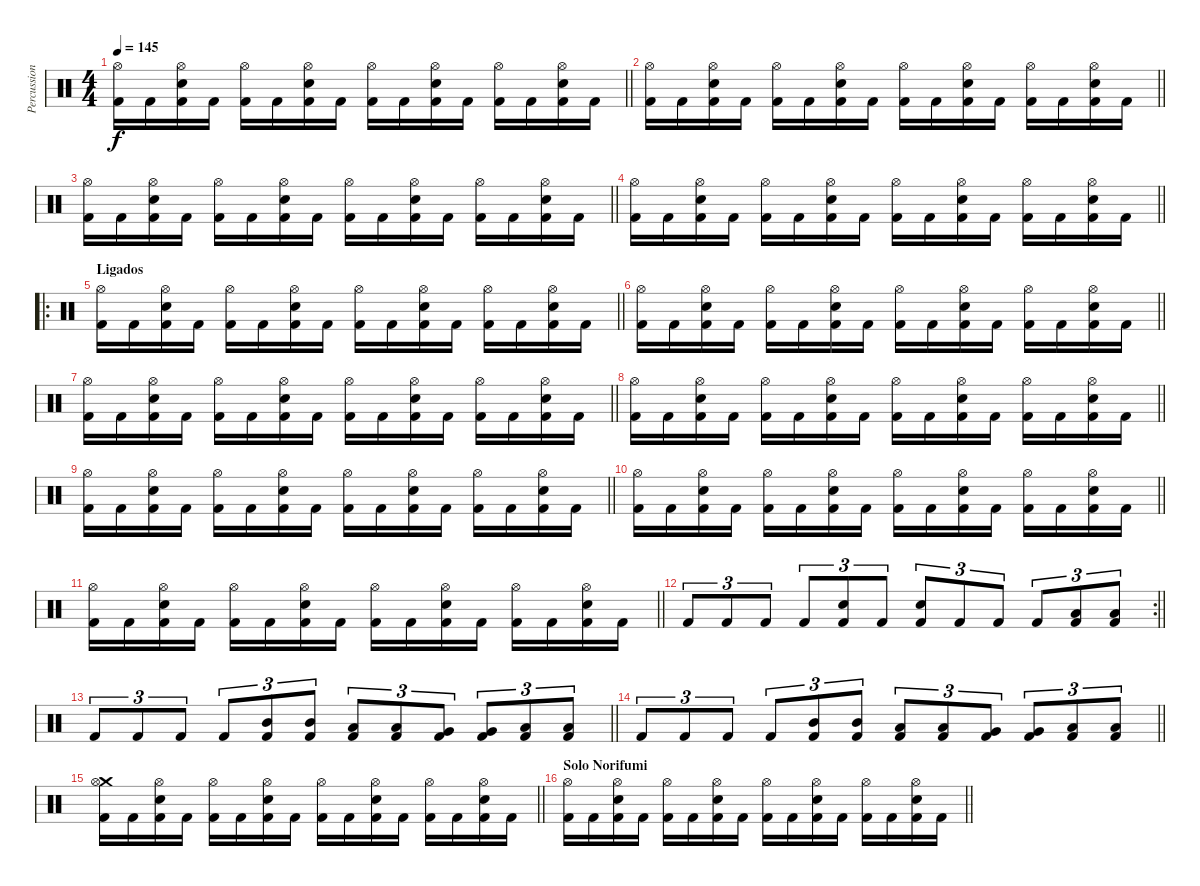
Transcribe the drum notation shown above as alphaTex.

\track ("Percussion" "Percussion") {instrument percussion}
\staff {score}
\articulation defaults
\ts (4 4)
\tempo 145
\clef neutral
\barLineRight lightlight
\ks c
("Hi-Hat (open)" "Kick (hit) 2").16{dy f} "Kick (hit) 2".16 ("Hi-Hat (open)" "Electric Snare (hit)" "Kick (hit) 2").16 "Kick (hit) 2".16 ("Hi-Hat (open)" "Kick (hit) 2").16 "Kick (hit) 2".16 ("Hi-Hat (open)" "Electric Snare (hit)" "Kick (hit) 2").16 "Kick (hit) 2".16 ("Hi-Hat (open)" "Kick (hit) 2").16 "Kick (hit) 2".16 ("Hi-Hat (open)" "Electric Snare (hit)" "Kick (hit) 2").16 "Kick (hit) 2".16 ("Hi-Hat (open)" "Kick (hit) 2").16 "Kick (hit) 2".16 ("Hi-Hat (open)" "Electric Snare (hit)" "Kick (hit) 2").16 "Kick (hit) 2".16 |
\barLineRight lightlight
("Hi-Hat (open)" "Kick (hit) 2").16 "Kick (hit) 2".16 ("Hi-Hat (open)" "Electric Snare (hit)" "Kick (hit) 2").16 "Kick (hit) 2".16 ("Hi-Hat (open)" "Kick (hit) 2").16 "Kick (hit) 2".16 ("Hi-Hat (open)" "Electric Snare (hit)" "Kick (hit) 2").16 "Kick (hit) 2".16 ("Hi-Hat (open)" "Kick (hit) 2").16 "Kick (hit) 2".16 ("Hi-Hat (open)" "Electric Snare (hit)" "Kick (hit) 2").16 "Kick (hit) 2".16 ("Hi-Hat (open)" "Kick (hit) 2").16 "Kick (hit) 2".16 ("Hi-Hat (open)" "Electric Snare (hit)" "Kick (hit) 2").16 "Kick (hit) 2".16 |
\barLineRight lightlight
("Hi-Hat (open)" "Kick (hit) 2").16 "Kick (hit) 2".16 ("Hi-Hat (open)" "Electric Snare (hit)" "Kick (hit) 2").16 "Kick (hit) 2".16 ("Hi-Hat (open)" "Kick (hit) 2").16 "Kick (hit) 2".16 ("Hi-Hat (open)" "Electric Snare (hit)" "Kick (hit) 2").16 "Kick (hit) 2".16 ("Hi-Hat (open)" "Kick (hit) 2").16 "Kick (hit) 2".16 ("Hi-Hat (open)" "Electric Snare (hit)" "Kick (hit) 2").16 "Kick (hit) 2".16 ("Hi-Hat (open)" "Kick (hit) 2").16 "Kick (hit) 2".16 ("Hi-Hat (open)" "Electric Snare (hit)" "Kick (hit) 2").16 "Kick (hit) 2".16 |
\barLineRight lightlight
("Hi-Hat (open)" "Kick (hit) 2").16 "Kick (hit) 2".16 ("Hi-Hat (open)" "Electric Snare (hit)" "Kick (hit) 2").16 "Kick (hit) 2".16 ("Hi-Hat (open)" "Kick (hit) 2").16 "Kick (hit) 2".16 ("Hi-Hat (open)" "Electric Snare (hit)" "Kick (hit) 2").16 "Kick (hit) 2".16 ("Hi-Hat (open)" "Kick (hit) 2").16 "Kick (hit) 2".16 ("Hi-Hat (open)" "Electric Snare (hit)" "Kick (hit) 2").16 "Kick (hit) 2".16 ("Hi-Hat (open)" "Kick (hit) 2").16 "Kick (hit) 2".16 ("Hi-Hat (open)" "Electric Snare (hit)" "Kick (hit) 2").16 "Kick (hit) 2".16 |
\ro
\section ("" "Ligados")
\barLineRight lightlight
("Hi-Hat (open)" "Kick (hit) 2").16 "Kick (hit) 2".16 ("Hi-Hat (open)" "Electric Snare (hit)" "Kick (hit) 2").16 "Kick (hit) 2".16 ("Hi-Hat (open)" "Kick (hit) 2").16 "Kick (hit) 2".16 ("Hi-Hat (open)" "Electric Snare (hit)" "Kick (hit) 2").16 "Kick (hit) 2".16 ("Hi-Hat (open)" "Kick (hit) 2").16 "Kick (hit) 2".16 ("Hi-Hat (open)" "Electric Snare (hit)" "Kick (hit) 2").16 "Kick (hit) 2".16 ("Hi-Hat (open)" "Kick (hit) 2").16 "Kick (hit) 2".16 ("Hi-Hat (open)" "Electric Snare (hit)" "Kick (hit) 2").16 "Kick (hit) 2".16 |
\barLineRight lightlight
("Hi-Hat (open)" "Kick (hit) 2").16 "Kick (hit) 2".16 ("Hi-Hat (open)" "Electric Snare (hit)" "Kick (hit) 2").16 "Kick (hit) 2".16 ("Hi-Hat (open)" "Kick (hit) 2").16 "Kick (hit) 2".16 ("Hi-Hat (open)" "Electric Snare (hit)" "Kick (hit) 2").16 "Kick (hit) 2".16 ("Hi-Hat (open)" "Kick (hit) 2").16 "Kick (hit) 2".16 ("Hi-Hat (open)" "Electric Snare (hit)" "Kick (hit) 2").16 "Kick (hit) 2".16 ("Hi-Hat (open)" "Kick (hit) 2").16 "Kick (hit) 2".16 ("Hi-Hat (open)" "Electric Snare (hit)" "Kick (hit) 2").16 "Kick (hit) 2".16 |
\barLineRight lightlight
("Hi-Hat (open)" "Kick (hit) 2").16 "Kick (hit) 2".16 ("Hi-Hat (open)" "Electric Snare (hit)" "Kick (hit) 2").16 "Kick (hit) 2".16 ("Hi-Hat (open)" "Kick (hit) 2").16 "Kick (hit) 2".16 ("Hi-Hat (open)" "Electric Snare (hit)" "Kick (hit) 2").16 "Kick (hit) 2".16 ("Hi-Hat (open)" "Kick (hit) 2").16 "Kick (hit) 2".16 ("Hi-Hat (open)" "Electric Snare (hit)" "Kick (hit) 2").16 "Kick (hit) 2".16 ("Hi-Hat (open)" "Kick (hit) 2").16 "Kick (hit) 2".16 ("Hi-Hat (open)" "Electric Snare (hit)" "Kick (hit) 2").16 "Kick (hit) 2".16 |
\barLineRight lightlight
("Hi-Hat (open)" "Kick (hit) 2").16 "Kick (hit) 2".16 ("Hi-Hat (open)" "Electric Snare (hit)" "Kick (hit) 2").16 "Kick (hit) 2".16 ("Hi-Hat (open)" "Kick (hit) 2").16 "Kick (hit) 2".16 ("Hi-Hat (open)" "Electric Snare (hit)" "Kick (hit) 2").16 "Kick (hit) 2".16 ("Hi-Hat (open)" "Kick (hit) 2").16 "Kick (hit) 2".16 ("Hi-Hat (open)" "Electric Snare (hit)" "Kick (hit) 2").16 "Kick (hit) 2".16 ("Hi-Hat (open)" "Kick (hit) 2").16 "Kick (hit) 2".16 ("Hi-Hat (open)" "Electric Snare (hit)" "Kick (hit) 2").16 "Kick (hit) 2".16 |
\barLineRight lightlight
("Hi-Hat (open)" "Kick (hit) 2").16 "Kick (hit) 2".16 ("Hi-Hat (open)" "Electric Snare (hit)" "Kick (hit) 2").16 "Kick (hit) 2".16 ("Hi-Hat (open)" "Kick (hit) 2").16 "Kick (hit) 2".16 ("Hi-Hat (open)" "Electric Snare (hit)" "Kick (hit) 2").16 "Kick (hit) 2".16 ("Hi-Hat (open)" "Kick (hit) 2").16 "Kick (hit) 2".16 ("Hi-Hat (open)" "Electric Snare (hit)" "Kick (hit) 2").16 "Kick (hit) 2".16 ("Hi-Hat (open)" "Kick (hit) 2").16 "Kick (hit) 2".16 ("Hi-Hat (open)" "Electric Snare (hit)" "Kick (hit) 2").16 "Kick (hit) 2".16 |
\barLineRight lightlight
("Hi-Hat (open)" "Kick (hit) 2").16 "Kick (hit) 2".16 ("Hi-Hat (open)" "Electric Snare (hit)" "Kick (hit) 2").16 "Kick (hit) 2".16 ("Hi-Hat (open)" "Kick (hit) 2").16 "Kick (hit) 2".16 ("Hi-Hat (open)" "Electric Snare (hit)" "Kick (hit) 2").16 "Kick (hit) 2".16 ("Hi-Hat (open)" "Kick (hit) 2").16 "Kick (hit) 2".16 ("Hi-Hat (open)" "Electric Snare (hit)" "Kick (hit) 2").16 "Kick (hit) 2".16 ("Hi-Hat (open)" "Kick (hit) 2").16 "Kick (hit) 2".16 ("Hi-Hat (open)" "Electric Snare (hit)" "Kick (hit) 2").16 "Kick (hit) 2".16 |
\barLineRight lightlight
("Hi-Hat (open)" "Kick (hit) 2").16 "Kick (hit) 2".16 ("Hi-Hat (open)" "Electric Snare (hit)" "Kick (hit) 2").16 "Kick (hit) 2".16 ("Hi-Hat (open)" "Kick (hit) 2").16 "Kick (hit) 2".16 ("Hi-Hat (open)" "Electric Snare (hit)" "Kick (hit) 2").16 "Kick (hit) 2".16 ("Hi-Hat (open)" "Kick (hit) 2").16 "Kick (hit) 2".16 ("Hi-Hat (open)" "Electric Snare (hit)" "Kick (hit) 2").16 "Kick (hit) 2".16 ("Hi-Hat (open)" "Kick (hit) 2").16 "Kick (hit) 2".16 ("Hi-Hat (open)" "Electric Snare (hit)" "Kick (hit) 2").16 "Kick (hit) 2".16 |
\rc 2
\barLineRight lightlight "Kick (hit) 2".8{tu (3 2)} "Kick (hit) 2".8{tu (3 2)} "Kick (hit) 2".8{tu (3 2)} "Kick (hit) 2".8{tu (3 2)}
("Electric Snare (hit)" "Kick (hit) 2").8{tu (3 2)} "Kick (hit) 2".8{tu (3 2)} ("Electric Snare (hit)" "Kick (hit) 2").8{tu (3 2)} "Kick (hit) 2".8{tu (3 2)} "Kick (hit) 2".8{tu (3 2)} "Kick (hit) 2".8{tu (3 2)} ("Low Floor Tom (hit)" "Kick (hit) 2").8{tu (3 2)} ("Low Floor Tom (hit)" "Kick (hit) 2").8{tu (3 2)} |
\barLineRight lightlight "Kick (hit) 2".8{tu (3 2)} "Kick (hit) 2".8{tu (3 2)} "Kick (hit) 2".8{tu (3 2)} "Kick (hit) 2".8{tu (3 2)}
("Mid Tom (hit)" "Kick (hit) 2").8{tu (3 2)} ("Mid Tom (hit)" "Kick (hit) 2").8{tu (3 2)} ("Low Tom (hit)" "Kick (hit) 2").8{tu (3 2)} ("Low Tom (hit)" "Kick (hit) 2").8{tu (3 2)} ("Very Low Tom (hit)" "Kick (hit) 2").8{tu (3 2)} ("Very Low Tom (hit)" "Kick (hit) 2").8{tu (3 2)} ("Low Floor Tom (hit)" "Kick (hit) 2").8{tu (3 2)} ("Low Floor Tom (hit)" "Kick (hit) 2").8{tu (3 2)} |
\barLineRight lightlight "Kick (hit) 2".8{tu (3 2)} "Kick (hit) 2".8{tu (3 2)} "Kick (hit) 2".8{tu (3 2)} "Kick (hit) 2".8{tu (3 2)}
("Mid Tom (hit)" "Kick (hit) 2").8{tu (3 2)} ("Mid Tom (hit)" "Kick (hit) 2").8{tu (3 2)} ("Low Tom (hit)" "Kick (hit) 2").8{tu (3 2)} ("Low Tom (hit)" "Kick (hit) 2").8{tu (3 2)} ("Very Low Tom (hit)" "Kick (hit) 2").8{tu (3 2)} ("Very Low Tom (hit)" "Kick (hit) 2").8{tu (3 2)} ("Low Floor Tom (hit)" "Kick (hit) 2").8{tu (3 2)} ("Low Floor Tom (hit)" "Kick (hit) 2").8{tu (3 2)} |
\barLineRight lightlight
("Crash medium (hit)" "Hi-Hat (open)" "Kick (hit) 2").16 "Kick (hit) 2".16 ("Hi-Hat (open)" "Electric Snare (hit)" "Kick (hit) 2").16 "Kick (hit) 2".16 ("Hi-Hat (open)" "Kick (hit) 2").16 "Kick (hit) 2".16 ("Hi-Hat (open)" "Electric Snare (hit)" "Kick (hit) 2").16 "Kick (hit) 2".16 ("Hi-Hat (open)" "Kick (hit) 2").16 "Kick (hit) 2".16 ("Hi-Hat (open)" "Electric Snare (hit)" "Kick (hit) 2").16 "Kick (hit) 2".16 ("Hi-Hat (open)" "Kick (hit) 2").16 "Kick (hit) 2".16 ("Hi-Hat (open)" "Electric Snare (hit)" "Kick (hit) 2").16 "Kick (hit) 2".16 |
\section ("" "Solo Norifumi")
\barLineRight lightlight
("Hi-Hat (open)" "Kick (hit) 2").16 "Kick (hit) 2".16 ("Hi-Hat (open)" "Electric Snare (hit)" "Kick (hit) 2").16 "Kick (hit) 2".16 ("Hi-Hat (open)" "Kick (hit) 2").16 "Kick (hit) 2".16 ("Hi-Hat (open)" "Electric Snare (hit)" "Kick (hit) 2").16 "Kick (hit) 2".16 ("Hi-Hat (open)" "Kick (hit) 2").16 "Kick (hit) 2".16 ("Hi-Hat (open)" "Electric Snare (hit)" "Kick (hit) 2").16 "Kick (hit) 2".16 ("Hi-Hat (open)" "Kick (hit) 2").16 "Kick (hit) 2".16 ("Hi-Hat (open)" "Electric Snare (hit)" "Kick (hit) 2").16 "Kick (hit) 2".16
